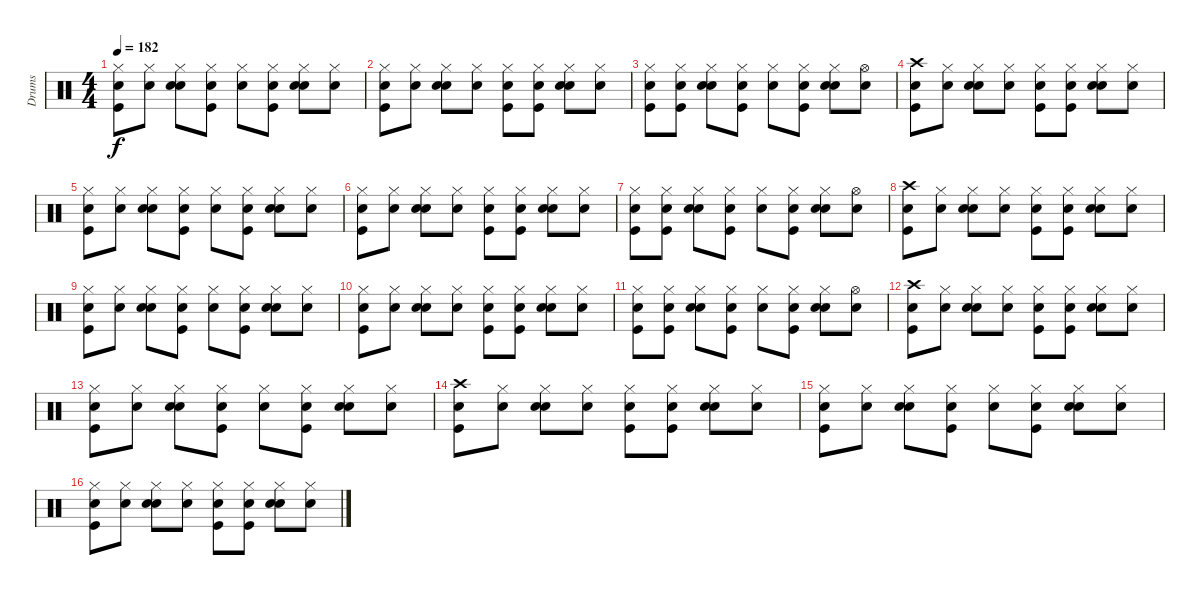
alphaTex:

\track ("Drums" "Drums") {instrument percussion}
\staff {score}
\articulation defaults
\ts (4 4)
\tempo 182
\clef neutral
\ks c
("Snare (hit)" "Kick (hit)" "Hi-Hat (closed)").8{dy f} ("Snare (hit)" "Hi-Hat (closed)").8 ("Snare (hit)" "Electric Snare (hit)" "Hi-Hat (closed)").8 ("Snare (hit)" "Kick (hit)" "Hi-Hat (closed)").8 ("Snare (hit)" "Hi-Hat (closed)").8 ("Snare (hit)" "Kick (hit)" "Hi-Hat (closed)").8 ("Snare (hit)" "Electric Snare (hit)" "Hi-Hat (closed)").8 ("Snare (hit)" "Hi-Hat (closed)").8 |
("Snare (hit)" "Kick (hit)" "Hi-Hat (closed)").8 ("Snare (hit)" "Hi-Hat (closed)").8 ("Snare (hit)" "Electric Snare (hit)" "Hi-Hat (closed)").8 ("Snare (hit)" "Hi-Hat (closed)").8 ("Snare (hit)" "Kick (hit)" "Hi-Hat (closed)").8 ("Snare (hit)" "Kick (hit)" "Hi-Hat (closed)").8 ("Snare (hit)" "Electric Snare (hit)" "Hi-Hat (closed)").8 ("Snare (hit)" "Hi-Hat (closed)").8 |
("Snare (hit)" "Kick (hit)" "Hi-Hat (closed)").8 ("Snare (hit)" "Kick (hit)" "Hi-Hat (closed)").8 ("Snare (hit)" "Electric Snare (hit)" "Hi-Hat (closed)").8 ("Snare (hit)" "Kick (hit)" "Hi-Hat (closed)").8 ("Snare (hit)" "Hi-Hat (closed)").8 ("Snare (hit)" "Kick (hit)" "Hi-Hat (closed)").8 ("Snare (hit)" "Electric Snare (hit)" "Hi-Hat (closed)").8 ("Snare (hit)" "Hi-Hat (open)").8 |
("Snare (hit)" "Kick (hit)" "Crash high (hit)").8 ("Snare (hit)" "Hi-Hat (closed)").8 ("Snare (hit)" "Electric Snare (hit)" "Hi-Hat (closed)").8 ("Snare (hit)" "Hi-Hat (closed)").8 ("Snare (hit)" "Kick (hit)" "Hi-Hat (closed)").8 ("Snare (hit)" "Kick (hit)" "Hi-Hat (closed)").8 ("Snare (hit)" "Electric Snare (hit)" "Hi-Hat (closed)").8 ("Snare (hit)" "Hi-Hat (closed)").8 |
("Snare (hit)" "Kick (hit)" "Hi-Hat (closed)").8 ("Snare (hit)" "Hi-Hat (closed)").8 ("Snare (hit)" "Electric Snare (hit)" "Hi-Hat (closed)").8 ("Snare (hit)" "Kick (hit)" "Hi-Hat (closed)").8 ("Snare (hit)" "Hi-Hat (closed)").8 ("Snare (hit)" "Kick (hit)" "Hi-Hat (closed)").8 ("Snare (hit)" "Electric Snare (hit)" "Hi-Hat (closed)").8 ("Snare (hit)" "Hi-Hat (closed)").8 |
("Snare (hit)" "Kick (hit)" "Hi-Hat (closed)").8 ("Snare (hit)" "Hi-Hat (closed)").8 ("Snare (hit)" "Electric Snare (hit)" "Hi-Hat (closed)").8 ("Snare (hit)" "Hi-Hat (closed)").8 ("Snare (hit)" "Kick (hit)" "Hi-Hat (closed)").8 ("Snare (hit)" "Kick (hit)" "Hi-Hat (closed)").8 ("Snare (hit)" "Electric Snare (hit)" "Hi-Hat (closed)").8 ("Snare (hit)" "Hi-Hat (closed)").8 |
("Snare (hit)" "Kick (hit)" "Hi-Hat (closed)").8 ("Snare (hit)" "Kick (hit)" "Hi-Hat (closed)").8 ("Snare (hit)" "Electric Snare (hit)" "Hi-Hat (closed)").8 ("Snare (hit)" "Kick (hit)" "Hi-Hat (closed)").8 ("Snare (hit)" "Hi-Hat (closed)").8 ("Snare (hit)" "Kick (hit)" "Hi-Hat (closed)").8 ("Snare (hit)" "Electric Snare (hit)" "Hi-Hat (closed)").8 ("Snare (hit)" "Hi-Hat (open)").8 |
("Snare (hit)" "Kick (hit)" "Crash high (hit)").8 ("Snare (hit)" "Hi-Hat (closed)").8 ("Snare (hit)" "Electric Snare (hit)" "Hi-Hat (closed)").8 ("Snare (hit)" "Hi-Hat (closed)").8 ("Snare (hit)" "Kick (hit)" "Hi-Hat (closed)").8 ("Snare (hit)" "Kick (hit)" "Hi-Hat (closed)").8 ("Snare (hit)" "Electric Snare (hit)" "Hi-Hat (closed)").8 ("Snare (hit)" "Hi-Hat (closed)").8 |
("Snare (hit)" "Kick (hit)" "Hi-Hat (closed)").8 ("Snare (hit)" "Hi-Hat (closed)").8 ("Snare (hit)" "Electric Snare (hit)" "Hi-Hat (closed)").8 ("Snare (hit)" "Kick (hit)" "Hi-Hat (closed)").8 ("Snare (hit)" "Hi-Hat (closed)").8 ("Snare (hit)" "Kick (hit)" "Hi-Hat (closed)").8 ("Snare (hit)" "Electric Snare (hit)" "Hi-Hat (closed)").8 ("Snare (hit)" "Hi-Hat (closed)").8 |
("Snare (hit)" "Kick (hit)" "Hi-Hat (closed)").8 ("Snare (hit)" "Hi-Hat (closed)").8 ("Snare (hit)" "Electric Snare (hit)" "Hi-Hat (closed)").8 ("Snare (hit)" "Hi-Hat (closed)").8 ("Snare (hit)" "Kick (hit)" "Hi-Hat (closed)").8 ("Snare (hit)" "Kick (hit)" "Hi-Hat (closed)").8 ("Snare (hit)" "Electric Snare (hit)" "Hi-Hat (closed)").8 ("Snare (hit)" "Hi-Hat (closed)").8 |
("Snare (hit)" "Kick (hit)" "Hi-Hat (closed)").8 ("Snare (hit)" "Kick (hit)" "Hi-Hat (closed)").8 ("Snare (hit)" "Electric Snare (hit)" "Hi-Hat (closed)").8 ("Snare (hit)" "Kick (hit)" "Hi-Hat (closed)").8 ("Snare (hit)" "Hi-Hat (closed)").8 ("Snare (hit)" "Kick (hit)" "Hi-Hat (closed)").8 ("Snare (hit)" "Electric Snare (hit)" "Hi-Hat (closed)").8 ("Snare (hit)" "Hi-Hat (open)").8 |
("Snare (hit)" "Kick (hit)" "Crash high (hit)").8 ("Snare (hit)" "Hi-Hat (closed)").8 ("Snare (hit)" "Electric Snare (hit)" "Hi-Hat (closed)").8 ("Snare (hit)" "Hi-Hat (closed)").8 ("Snare (hit)" "Kick (hit)" "Hi-Hat (closed)").8 ("Snare (hit)" "Kick (hit)" "Hi-Hat (closed)").8 ("Snare (hit)" "Electric Snare (hit)" "Hi-Hat (closed)").8 ("Snare (hit)" "Hi-Hat (closed)").8 |
("Snare (hit)" "Kick (hit)" "Hi-Hat (closed)").8 ("Snare (hit)" "Hi-Hat (closed)").8 ("Snare (hit)" "Electric Snare (hit)" "Hi-Hat (closed)").8 ("Snare (hit)" "Kick (hit)" "Hi-Hat (closed)").8 ("Snare (hit)" "Hi-Hat (closed)").8 ("Snare (hit)" "Kick (hit)" "Hi-Hat (closed)").8 ("Snare (hit)" "Electric Snare (hit)" "Hi-Hat (closed)").8 ("Snare (hit)" "Hi-Hat (closed)").8 |
("Snare (hit)" "Kick (hit)" "Crash high (hit)").8 ("Snare (hit)" "Hi-Hat (closed)").8 ("Snare (hit)" "Electric Snare (hit)" "Hi-Hat (closed)").8 ("Snare (hit)" "Hi-Hat (closed)").8 ("Snare (hit)" "Kick (hit)" "Hi-Hat (closed)").8 ("Snare (hit)" "Kick (hit)" "Hi-Hat (closed)").8 ("Snare (hit)" "Electric Snare (hit)" "Hi-Hat (closed)").8 ("Snare (hit)" "Hi-Hat (closed)").8 |
("Snare (hit)" "Kick (hit)" "Hi-Hat (closed)").8 ("Snare (hit)" "Hi-Hat (closed)").8 ("Snare (hit)" "Electric Snare (hit)" "Hi-Hat (closed)").8 ("Snare (hit)" "Kick (hit)" "Hi-Hat (closed)").8 ("Snare (hit)" "Hi-Hat (closed)").8 ("Snare (hit)" "Kick (hit)" "Hi-Hat (closed)").8 ("Snare (hit)" "Electric Snare (hit)" "Hi-Hat (closed)").8 ("Snare (hit)" "Hi-Hat (closed)").8 |
("Snare (hit)" "Kick (hit)" "Hi-Hat (closed)").8 ("Snare (hit)" "Hi-Hat (closed)").8 ("Snare (hit)" "Electric Snare (hit)" "Hi-Hat (closed)").8 ("Snare (hit)" "Hi-Hat (closed)").8 ("Snare (hit)" "Kick (hit)" "Hi-Hat (closed)").8 ("Snare (hit)" "Kick (hit)" "Hi-Hat (closed)").8 ("Snare (hit)" "Electric Snare (hit)" "Hi-Hat (closed)").8 ("Snare (hit)" "Hi-Hat (closed)").8
